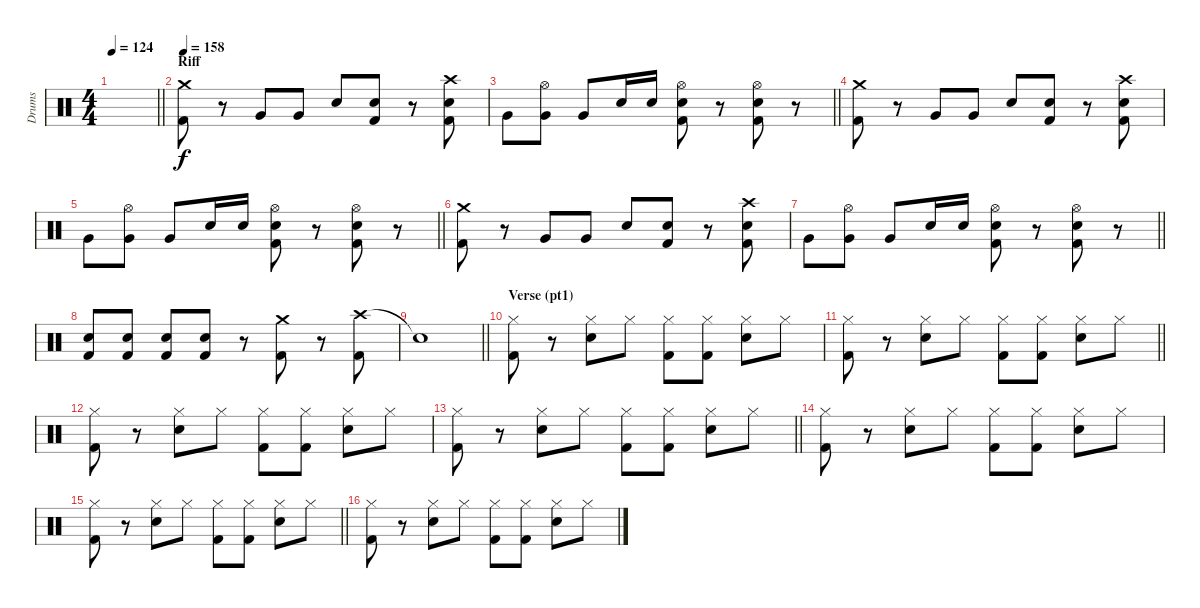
\track ("Drums" "Drums") {instrument percussion}
\staff
\articulation defaults
\ts (4 4)
\tempo 124
\clef neutral
\barLineRight lightlight
\ks c
|
\section ("" "Riff")
\tempo 158
("Crash medium (hit)" "Kick (hit) 2").8 r.8 "Very Low Tom (hit)".8 "Very Low Tom (hit)".8 "Electric Snare (hit)".8 ("Electric Snare (hit)" "Kick (hit) 2").8 r.8 ("Crash high (hit)" "Electric Snare (hit)" "Kick (hit) 2").8 |
\barLineRight lightlight "Very Low Tom (hit)".8
("Hi-Hat (open)" "Very Low Tom (hit)").8 "Very Low Tom (hit)".8 "Electric Snare (hit)".16 "Electric Snare (hit)".16 ("Hi-Hat (open)" "Electric Snare (hit)" "Kick (hit) 2").8 r.8 ("Hi-Hat (open)" "Electric Snare (hit)" "Kick (hit) 2").8 r.8 |
("Crash medium (hit)" "Kick (hit) 2").8 r.8 "Very Low Tom (hit)".8 "Very Low Tom (hit)".8 "Electric Snare (hit)".8 ("Electric Snare (hit)" "Kick (hit) 2").8 r.8 ("Crash high (hit)" "Electric Snare (hit)" "Kick (hit) 2").8 |
\barLineRight lightlight "Very Low Tom (hit)".8
("Hi-Hat (open)" "Very Low Tom (hit)").8 "Very Low Tom (hit)".8 "Electric Snare (hit)".16 "Electric Snare (hit)".16 ("Hi-Hat (open)" "Electric Snare (hit)" "Kick (hit) 2").8 r.8 ("Hi-Hat (open)" "Electric Snare (hit)" "Kick (hit) 2").8 r.8 |
("Crash medium (hit)" "Kick (hit) 2").8 r.8 "Very Low Tom (hit)".8 "Very Low Tom (hit)".8 "Electric Snare (hit)".8 ("Electric Snare (hit)" "Kick (hit) 2").8 r.8 ("Crash high (hit)" "Electric Snare (hit)" "Kick (hit) 2").8 |
\barLineRight lightlight "Very Low Tom (hit)".8
("Hi-Hat (open)" "Very Low Tom (hit)").8 "Very Low Tom (hit)".8 "Electric Snare (hit)".16 "Electric Snare (hit)".16 ("Hi-Hat (open)" "Electric Snare (hit)" "Kick (hit) 2").8 r.8 ("Hi-Hat (open)" "Electric Snare (hit)" "Kick (hit) 2").8 r.8 |
("Electric Snare (hit)" "Kick (hit) 2").8 ("Electric Snare (hit)" "Kick (hit) 2").8 ("Electric Snare (hit)" "Kick (hit) 2").8 ("Electric Snare (hit)" "Kick (hit) 2").8 r.8 ("Crash medium (hit)" "Kick (hit) 2").8 r.8 ("Crash high (hit)" "Kick (hit) 2").8 |
\barLineRight lightlight "Snare (hit)"{t}.1
|
\section ("" "Verse (pt1)")
("Hi-Hat (closed)" "Kick (hit) 2").8 r.8 ("Hi-Hat (closed)" "Electric Snare (hit)").8 "Hi-Hat (closed)".8 ("Hi-Hat (closed)" "Kick (hit) 2").8 ("Hi-Hat (closed)" "Kick (hit) 2").8 ("Hi-Hat (closed)" "Electric Snare (hit)").8 "Hi-Hat (closed)".8 |
\barLineRight lightlight
("Hi-Hat (closed)" "Kick (hit) 2").8 r.8 ("Hi-Hat (closed)" "Electric Snare (hit)").8 "Hi-Hat (closed)".8 ("Hi-Hat (closed)" "Kick (hit) 2").8 ("Hi-Hat (closed)" "Kick (hit) 2").8 ("Hi-Hat (closed)" "Electric Snare (hit)").8 "Hi-Hat (closed)".8 |
("Hi-Hat (closed)" "Kick (hit) 2").8 r.8 ("Hi-Hat (closed)" "Electric Snare (hit)").8 "Hi-Hat (closed)".8 ("Hi-Hat (closed)" "Kick (hit) 2").8 ("Hi-Hat (closed)" "Kick (hit) 2").8 ("Hi-Hat (closed)" "Electric Snare (hit)").8 "Hi-Hat (closed)".8 |
\barLineRight lightlight
("Hi-Hat (closed)" "Kick (hit) 2").8 r.8 ("Hi-Hat (closed)" "Electric Snare (hit)").8 "Hi-Hat (closed)".8 ("Hi-Hat (closed)" "Kick (hit) 2").8 ("Hi-Hat (closed)" "Kick (hit) 2").8 ("Hi-Hat (closed)" "Electric Snare (hit)").8 "Hi-Hat (closed)".8 |
("Hi-Hat (closed)" "Kick (hit) 2").8 r.8 ("Hi-Hat (closed)" "Electric Snare (hit)").8 "Hi-Hat (closed)".8 ("Hi-Hat (closed)" "Kick (hit) 2").8 ("Hi-Hat (closed)" "Kick (hit) 2").8 ("Hi-Hat (closed)" "Electric Snare (hit)").8 "Hi-Hat (closed)".8 |
\barLineRight lightlight
("Hi-Hat (closed)" "Kick (hit) 2").8 r.8 ("Hi-Hat (closed)" "Electric Snare (hit)").8 "Hi-Hat (closed)".8 ("Hi-Hat (closed)" "Kick (hit) 2").8 ("Hi-Hat (closed)" "Kick (hit) 2").8 ("Hi-Hat (closed)" "Electric Snare (hit)").8 "Hi-Hat (closed)".8 |
("Hi-Hat (closed)" "Kick (hit) 2").8 r.8 ("Hi-Hat (closed)" "Electric Snare (hit)").8 "Hi-Hat (closed)".8 ("Hi-Hat (closed)" "Kick (hit) 2").8 ("Hi-Hat (closed)" "Kick (hit) 2").8 ("Hi-Hat (closed)" "Electric Snare (hit)").8 "Hi-Hat (closed)".8
